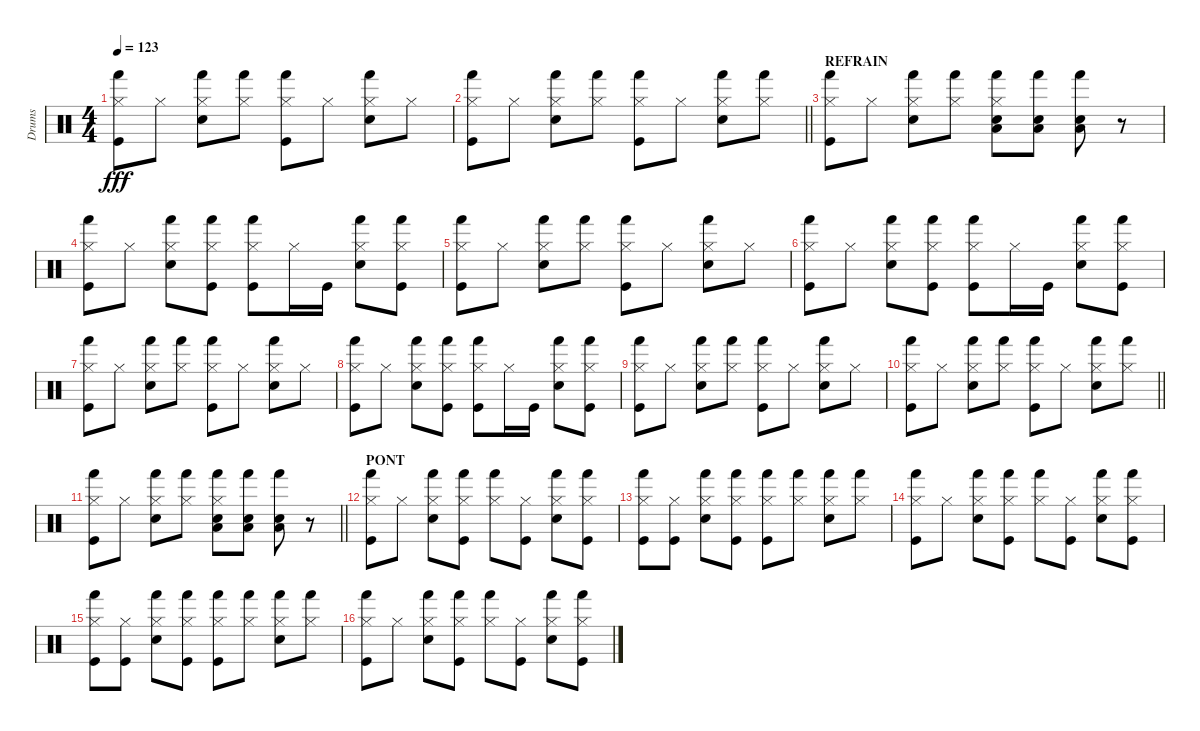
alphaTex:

\track ("Drums" "Drums") {instrument percussion}
\staff {score}
\articulation defaults
\ts (4 4)
\tempo 123
\clef neutral
\ks c
("Hi-Hat (closed)" "Kick (hit)" "Hand (hit)").8{dy fff} "Hi-Hat (closed)".8 ("Electric Snare (hit)" "Hand (hit)" "Hi-Hat (closed)").8 ("Hi-Hat (closed)" "Hand (hit)").8 ("Hi-Hat (closed)" "Kick (hit)" "Hand (hit)").8 "Hi-Hat (closed)".8 ("Electric Snare (hit)" "Hand (hit)" "Hi-Hat (closed)").8 "Hi-Hat (closed)".8 |
\barLineRight lightlight
("Kick (hit)" "Hi-Hat (closed)" "Hand (hit)").8 "Hi-Hat (closed)".8 ("Electric Snare (hit)" "Hand (hit)" "Hi-Hat (closed)").8 ("Hi-Hat (closed)" "Hand (hit)").8 ("Hand (hit)" "Hi-Hat (closed)" "Kick (hit)").8 "Hi-Hat (closed)".8 ("Hi-Hat (closed)" "Hand (hit)" "Electric Snare (hit)").8 ("Hi-Hat (closed)" "Hand (hit)").8 |
\section ("" "REFRAIN")
("Hi-Hat (closed)" "Kick (hit)" "Hand (hit)").8 "Hi-Hat (closed)".8 ("Hand (hit)" "Electric Snare (hit)" "Hi-Hat (closed)").8 ("Hand (hit)" "Hi-Hat (closed)").8 ("Hi-Hat (closed)" "Electric Snare (hit)" "Low Tom (hit)" "Hand (hit)").8 ("Low Tom (hit)" "Electric Snare (hit)" "Hand (hit)").8 ("Low Tom (hit)" "Electric Snare (hit)" "Hand (hit)").8 r.8 |
("Hand (hit)" "Hi-Hat (closed)" "Kick (hit)").8 "Hi-Hat (closed)".8 ("Hi-Hat (closed)" "Hand (hit)" "Electric Snare (hit)").8 ("Hi-Hat (closed)" "Hand (hit)" "Kick (hit)").8 ("Hi-Hat (closed)" "Hand (hit)" "Kick (hit)").8 "Hi-Hat (closed)".16 "Kick (hit)".16 ("Hi-Hat (closed)" "Electric Snare (hit)" "Hand (hit)").8 ("Hi-Hat (closed)" "Hand (hit)" "Kick (hit)").8 |
("Hi-Hat (closed)" "Kick (hit)" "Hand (hit)").8 "Hi-Hat (closed)".8 ("Electric Snare (hit)" "Hand (hit)" "Hi-Hat (closed)").8 ("Hi-Hat (closed)" "Hand (hit)").8 ("Hi-Hat (closed)" "Kick (hit)" "Hand (hit)").8 "Hi-Hat (closed)".8 ("Electric Snare (hit)" "Hand (hit)" "Hi-Hat (closed)").8 "Hi-Hat (closed)".8 |
("Hand (hit)" "Hi-Hat (closed)" "Kick (hit)").8 "Hi-Hat (closed)".8 ("Hi-Hat (closed)" "Hand (hit)" "Electric Snare (hit)").8 ("Hi-Hat (closed)" "Hand (hit)" "Kick (hit)").8 ("Hi-Hat (closed)" "Hand (hit)" "Kick (hit)").8 "Hi-Hat (closed)".16 "Kick (hit)".16 ("Hi-Hat (closed)" "Electric Snare (hit)" "Hand (hit)").8 ("Hi-Hat (closed)" "Hand (hit)" "Kick (hit)").8 |
("Hi-Hat (closed)" "Kick (hit)" "Hand (hit)").8 "Hi-Hat (closed)".8 ("Electric Snare (hit)" "Hand (hit)" "Hi-Hat (closed)").8 ("Hi-Hat (closed)" "Hand (hit)").8 ("Hi-Hat (closed)" "Kick (hit)" "Hand (hit)").8 "Hi-Hat (closed)".8 ("Electric Snare (hit)" "Hand (hit)" "Hi-Hat (closed)").8 "Hi-Hat (closed)".8 |
("Hand (hit)" "Hi-Hat (closed)" "Kick (hit)").8 "Hi-Hat (closed)".8 ("Hi-Hat (closed)" "Hand (hit)" "Electric Snare (hit)").8 ("Hi-Hat (closed)" "Hand (hit)" "Kick (hit)").8 ("Hi-Hat (closed)" "Hand (hit)" "Kick (hit)").8 "Hi-Hat (closed)".16 "Kick (hit)".16 ("Hi-Hat (closed)" "Electric Snare (hit)" "Hand (hit)").8 ("Hi-Hat (closed)" "Hand (hit)" "Kick (hit)").8 |
("Hi-Hat (closed)" "Kick (hit)" "Hand (hit)").8 "Hi-Hat (closed)".8 ("Electric Snare (hit)" "Hand (hit)" "Hi-Hat (closed)").8 ("Hi-Hat (closed)" "Hand (hit)").8 ("Hi-Hat (closed)" "Kick (hit)" "Hand (hit)").8 "Hi-Hat (closed)".8 ("Electric Snare (hit)" "Hand (hit)" "Hi-Hat (closed)").8 "Hi-Hat (closed)".8 |
\barLineRight lightlight
("Kick (hit)" "Hi-Hat (closed)" "Hand (hit)").8 "Hi-Hat (closed)".8 ("Electric Snare (hit)" "Hand (hit)" "Hi-Hat (closed)").8 ("Hi-Hat (closed)" "Hand (hit)").8 ("Hand (hit)" "Hi-Hat (closed)" "Kick (hit)").8 "Hi-Hat (closed)".8 ("Hi-Hat (closed)" "Hand (hit)" "Electric Snare (hit)").8 ("Hi-Hat (closed)" "Hand (hit)").8 |
\barLineRight lightlight
("Hi-Hat (closed)" "Kick (hit)" "Hand (hit)").8 "Hi-Hat (closed)".8 ("Hand (hit)" "Electric Snare (hit)" "Hi-Hat (closed)").8 ("Hand (hit)" "Hi-Hat (closed)").8 ("Hi-Hat (closed)" "Electric Snare (hit)" "Low Tom (hit)" "Hand (hit)").8 ("Low Tom (hit)" "Electric Snare (hit)" "Hand (hit)").8 ("Low Tom (hit)" "Electric Snare (hit)" "Hand (hit)").8 r.8 |
\section ("" "PONT")
("Kick (hit)" "Hi-Hat (closed)" "Hand (hit)").8 "Hi-Hat (closed)".8 ("Electric Snare (hit)" "Hi-Hat (closed)" "Hand (hit)").8 ("Hand (hit)" "Hi-Hat (closed)" "Kick (hit)").8 ("Hi-Hat (closed)" "Hand (hit)").8 ("Kick (hit)" "Hi-Hat (closed)").8 ("Hi-Hat (closed)" "Electric Snare (hit)" "Hand (hit)").8 ("Kick (hit)" "Hi-Hat (closed)" "Hand (hit)").8 |
("Hand (hit)" "Kick (hit)" "Hi-Hat (closed)").8 ("Hi-Hat (closed)" "Kick (hit)").8 ("Electric Snare (hit)" "Hi-Hat (closed)" "Hand (hit)").8 ("Kick (hit)" "Hand (hit)" "Hi-Hat (closed)").8 ("Kick (hit)" "Hand (hit)" "Hi-Hat (closed)").8 ("Hand (hit)" "Hi-Hat (closed)").8 ("Electric Snare (hit)" "Hand (hit)" "Hi-Hat (closed)").8 ("Hi-Hat (closed)" "Hand (hit)").8 |
("Kick (hit)" "Hi-Hat (closed)" "Hand (hit)").8 "Hi-Hat (closed)".8 ("Electric Snare (hit)" "Hi-Hat (closed)" "Hand (hit)").8 ("Hand (hit)" "Hi-Hat (closed)" "Kick (hit)").8 ("Hi-Hat (closed)" "Hand (hit)").8 ("Kick (hit)" "Hi-Hat (closed)").8 ("Hi-Hat (closed)" "Electric Snare (hit)" "Hand (hit)").8 ("Kick (hit)" "Hi-Hat (closed)" "Hand (hit)").8 |
("Hand (hit)" "Kick (hit)" "Hi-Hat (closed)").8 ("Hi-Hat (closed)" "Kick (hit)").8 ("Electric Snare (hit)" "Hi-Hat (closed)" "Hand (hit)").8 ("Kick (hit)" "Hand (hit)" "Hi-Hat (closed)").8 ("Kick (hit)" "Hand (hit)" "Hi-Hat (closed)").8 ("Hand (hit)" "Hi-Hat (closed)").8 ("Electric Snare (hit)" "Hand (hit)" "Hi-Hat (closed)").8 ("Hi-Hat (closed)" "Hand (hit)").8 |
("Kick (hit)" "Hi-Hat (closed)" "Hand (hit)").8 "Hi-Hat (closed)".8 ("Electric Snare (hit)" "Hi-Hat (closed)" "Hand (hit)").8 ("Hand (hit)" "Hi-Hat (closed)" "Kick (hit)").8 ("Hi-Hat (closed)" "Hand (hit)").8 ("Kick (hit)" "Hi-Hat (closed)").8 ("Hi-Hat (closed)" "Electric Snare (hit)" "Hand (hit)").8 ("Kick (hit)" "Hi-Hat (closed)" "Hand (hit)").8
